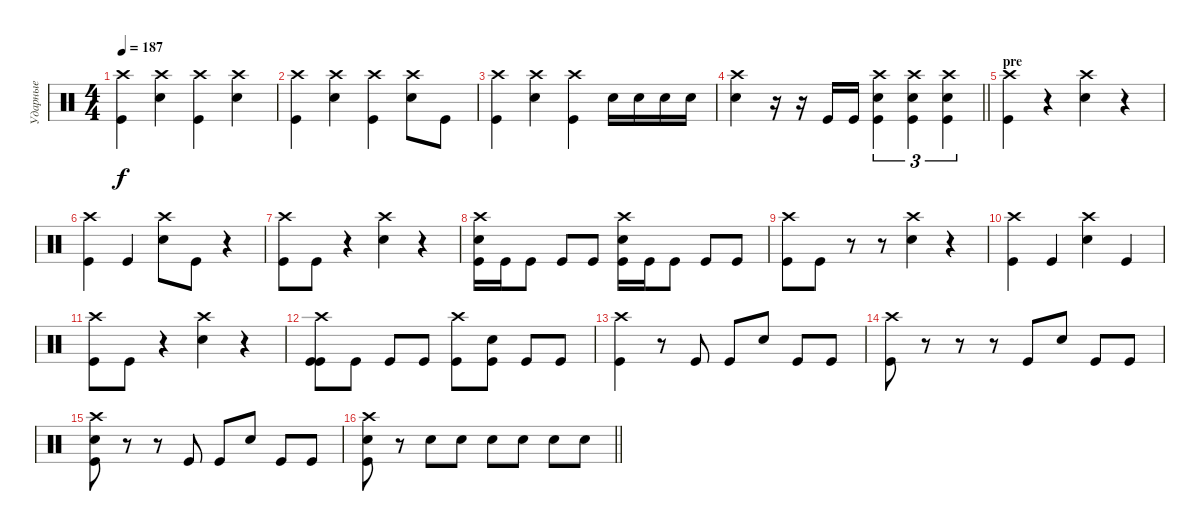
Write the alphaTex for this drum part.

\track ("Ударные" "Ударные") {instrument percussion}
\staff {score}
\articulation defaults
\ts (4 4)
\tempo 187
\clef neutral
\ks c
("Crash high (hit)" "Kick (hit)").4{dy f} ("Crash high (hit)" "Electric Snare (hit)").4 ("Crash high (hit)" "Kick (hit)").4 ("Crash high (hit)" "Electric Snare (hit)").4 |
("Crash high (hit)" "Kick (hit)").4 ("Crash high (hit)" "Electric Snare (hit)").4 ("Crash high (hit)" "Kick (hit)").4 ("Crash high (hit)" "Electric Snare (hit)").8 "Kick (hit)".8 |
("Crash high (hit)" "Kick (hit)").4 ("Crash high (hit)" "Electric Snare (hit)").4 ("Crash high (hit)" "Kick (hit)").4 "Electric Snare (hit)".16 "Electric Snare (hit)".16 "Electric Snare (hit)".16 "Electric Snare (hit)".16 |
\barLineRight lightlight
("Crash high (hit)" "Electric Snare (hit)").4 r.16 r.16 "Kick (hit)".16 "Kick (hit)".16 ("Crash high (hit)" "Electric Snare (hit)" "Kick (hit)").4{tu (3 2)} ("Crash high (hit)" "Electric Snare (hit)" "Kick (hit)").4{tu (3 2)} ("Crash high (hit)" "Electric Snare (hit)" "Kick (hit)").4{tu (3 2)} |
\section ("" "pre")
("Crash high (hit)" "Kick (hit)").4 r.4 ("Crash high (hit)" "Electric Snare (hit)").4 r.4 |
("Crash high (hit)" "Kick (hit)").4 "Kick (hit)".4 ("Crash high (hit)" "Electric Snare (hit)").8 "Kick (hit)".8 r.4 |
("Crash high (hit)" "Kick (hit)").8 "Kick (hit)".8 r.4 ("Crash high (hit)" "Electric Snare (hit)").4 r.4 |
("Crash high (hit)" "Electric Snare (hit)" "Kick (hit)").16 "Kick (hit)".16 "Kick (hit)".8 "Kick (hit)".8 "Kick (hit)".8 ("Crash high (hit)" "Electric Snare (hit)" "Kick (hit)").16 "Kick (hit)".16 "Kick (hit)".8 "Kick (hit)".8 "Kick (hit)".8 |
("Crash high (hit)" "Kick (hit)").8 "Kick (hit)".8 r.8 r.8 ("Crash high (hit)" "Electric Snare (hit)").4 r.4 |
("Crash high (hit)" "Kick (hit)").4 "Kick (hit)".4 ("Crash high (hit)" "Electric Snare (hit)").4 "Kick (hit)".4 |
("Crash high (hit)" "Kick (hit)").8 "Kick (hit)".8 r.4 ("Crash high (hit)" "Electric Snare (hit)").4 r.4 |
("Crash high (hit)" "Kick (hit)" "Kick (hit)").8 "Kick (hit)".8 "Kick (hit)".8 "Kick (hit)".8 ("Crash high (hit)" "Kick (hit)").8 ("Electric Snare (hit)" "Kick (hit)").8 "Kick (hit)".8 "Kick (hit)".8 |
("Crash high (hit)" "Kick (hit)").4 r.8 "Kick (hit)".8 "Kick (hit)".8 "Electric Snare (hit)".8 "Kick (hit)".8 "Kick (hit)".8 |
("Crash high (hit)" "Kick (hit)").8 r.8 r.8 r.8 "Kick (hit)".8 "Electric Snare (hit)".8 "Kick (hit)".8 "Kick (hit)".8 |
("Crash high (hit)" "Electric Snare (hit)" "Kick (hit)").8 r.8 r.8 "Kick (hit)".8 "Kick (hit)".8 "Electric Snare (hit)".8 "Kick (hit)".8 "Kick (hit)".8 |
\barLineRight lightlight
("Crash high (hit)" "Electric Snare (hit)" "Kick (hit)").8 r.8 "Electric Snare (hit)".8 "Electric Snare (hit)".8 "Electric Snare (hit)".8 "Electric Snare (hit)".8 "Electric Snare (hit)".8 "Electric Snare (hit)".8
